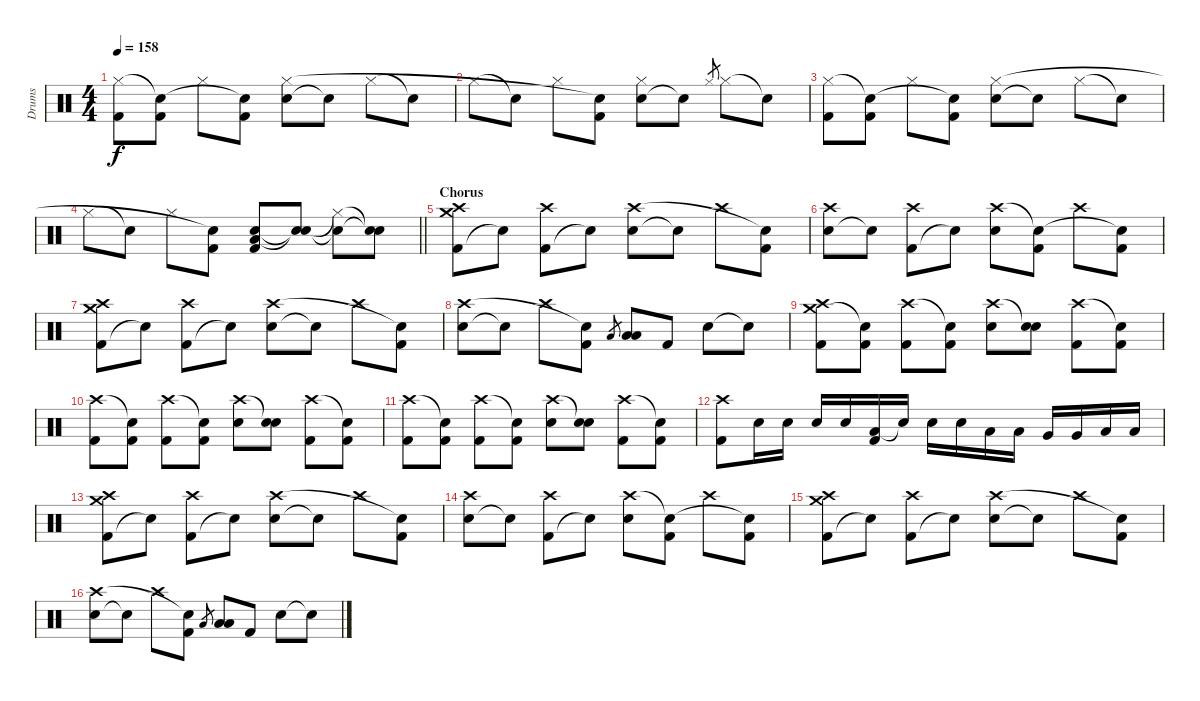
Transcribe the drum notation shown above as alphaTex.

\track ("Drums" "Drums") {instrument percussion}
\staff {score}
\articulation defaults
\ts (4 4)
\tempo 158
\clef neutral
\ks c
("Kick (hit) 2" "Hi-Hat (closed)").8{dy f} ("Kick (hit) 2" "Snare (hit)"{t}).8 "Hi-Hat (closed)".8 ("Kick (hit) 2" "Snare (hit)"{t}).8 ("Electric Snare (hit)" "Hi-Hat (closed)").8 "Snare (hit)"{t}.8 "Hi-Hat (closed)".8 "Snare (hit)"{t}.8 |
"Hi-Hat (closed)".8 "Snare (hit)"{t}.8 "Hi-Hat (closed)".8 ("Kick (hit) 2" "Snare (hit)"{t}).8 ("Electric Snare (hit)" "Hi-Hat (closed)").8 "Snare (hit)"{t}.8 "Hi-Hat (closed)".8{gr} "Hi-Hat (closed)".8 "Snare (hit)"{t}.8 |
("Kick (hit) 2" "Hi-Hat (closed)").8 ("Kick (hit) 2" "Snare (hit)"{t}).8 "Hi-Hat (closed)".8 ("Kick (hit) 2" "Snare (hit)"{t}).8 ("Electric Snare (hit)" "Hi-Hat (closed)").8 "Snare (hit)"{t}.8 "Hi-Hat (closed)".8 "Snare (hit)"{t}.8 |
\barLineRight lightlight "Hi-Hat (closed)".8 "Snare (hit)"{t}.8 "Hi-Hat (closed)".8
("Kick (hit) 2" "Snare (hit)"{t}).8 ("Electric Snare (hit)" "Low Floor Tom (hit)" "Kick (hit) 2").8 ("Snare (hit)"{t} "Snare (hit)"{t}).8 ("Snare (hit)"{t} "Hi-Hat (closed)"{t}).8 ("Snare (hit)"{t} "Snare (hit)"{t}).8 |
\section ("" "Chorus")
("Kick (hit) 2" "Crash medium (hit)" "Crash high (hit)").8 "Snare (hit)"{t}.8 ("Kick (hit) 2" "Crash high (hit)").8 "Snare (hit)"{t}.8 ("Electric Snare (hit)" "Crash high (hit)").8 "Snare (hit)"{t}.8 "Crash high (hit)".8 ("Kick (hit) 2" "Snare (hit)"{t}).8 |
("Electric Snare (hit)" "Crash high (hit)").8 "Snare (hit)"{t}.8 ("Kick (hit) 2" "Crash high (hit)").8 "Snare (hit)"{t}.8 ("Electric Snare (hit)" "Crash high (hit)").8 ("Kick (hit) 2" "Snare (hit)"{t}).8 "Crash high (hit)".8 ("Kick (hit) 2" "Snare (hit)"{t}).8 |
("Kick (hit) 2" "Crash medium (hit)" "Crash high (hit)").8 "Snare (hit)"{t}.8 ("Kick (hit) 2" "Crash high (hit)").8 "Snare (hit)"{t}.8 ("Electric Snare (hit)" "Crash high (hit)").8 "Snare (hit)"{t}.8 "Crash high (hit)".8 ("Kick (hit) 2" "Snare (hit)"{t}).8 |
("Electric Snare (hit)" "Crash high (hit)").8 "Snare (hit)"{t}.8 "Crash high (hit)".8 ("Kick (hit) 2" "Snare (hit)"{t}).8 "Low Tom (hit)".8{gr} ("Low Tom (hit)" "Low Floor Tom (hit)").8 "Kick (hit) 2".8 "Electric Snare (hit)".8 "Snare (hit)"{t}.8 |
("Kick (hit) 2" "Crash medium (hit)" "Crash high (hit)").8 ("Kick (hit) 2" "Snare (hit)"{t}).8 ("Kick (hit) 2" "Crash high (hit)").8 ("Kick (hit) 2" "Snare (hit)"{t}).8 ("Electric Snare (hit)" "Crash high (hit)").8 ("Electric Snare (hit)" "Snare (hit)"{t}).8 ("Kick (hit) 2" "Crash high (hit)").8 ("Kick (hit) 2" "Snare (hit)"{t}).8 |
("Kick (hit) 2" "Crash high (hit)").8 ("Kick (hit) 2" "Snare (hit)"{t}).8 ("Kick (hit) 2" "Crash high (hit)").8 ("Kick (hit) 2" "Snare (hit)"{t}).8 ("Electric Snare (hit)" "Crash high (hit)").8 ("Electric Snare (hit)" "Snare (hit)"{t}).8 ("Kick (hit) 2" "Crash high (hit)").8 ("Kick (hit) 2" "Snare (hit)"{t}).8 |
("Kick (hit) 2" "Crash high (hit)").8 ("Kick (hit) 2" "Snare (hit)"{t}).8 ("Kick (hit) 2" "Crash high (hit)").8 ("Kick (hit) 2" "Snare (hit)"{t}).8 ("Electric Snare (hit)" "Crash high (hit)").8 ("Electric Snare (hit)" "Snare (hit)"{t}).8 ("Kick (hit) 2" "Crash high (hit)").8 ("Kick (hit) 2" "Snare (hit)"{t}).8 |
("Kick (hit) 2" "Crash high (hit)").8 "Electric Snare (hit)".16 "Electric Snare (hit)".16 "Electric Snare (hit)".16 "Electric Snare (hit)".16 ("Low Tom (hit)" "Kick (hit) 2").16 "Snare (hit)"{t}.16 "Electric Snare (hit)".16 "Electric Snare (hit)".16 "Low Tom (hit)".16 "Low Tom (hit)".16 "Very Low Tom (hit)".16 "Very Low Tom (hit)".16 "Low Floor Tom (hit)".16 "Low Floor Tom (hit)".16 |
("Kick (hit) 2" "Crash medium (hit)" "Crash high (hit)").8 "Snare (hit)"{t}.8 ("Kick (hit) 2" "Crash high (hit)").8 "Snare (hit)"{t}.8 ("Electric Snare (hit)" "Crash high (hit)").8 "Snare (hit)"{t}.8 "Crash high (hit)".8 ("Kick (hit) 2" "Snare (hit)"{t}).8 |
("Electric Snare (hit)" "Crash high (hit)").8 "Snare (hit)"{t}.8 ("Kick (hit) 2" "Crash high (hit)").8 "Snare (hit)"{t}.8 ("Electric Snare (hit)" "Crash high (hit)").8 ("Kick (hit) 2" "Snare (hit)"{t}).8 "Crash high (hit)".8 ("Kick (hit) 2" "Snare (hit)"{t}).8 |
("Kick (hit) 2" "Crash medium (hit)" "Crash high (hit)").8 "Snare (hit)"{t}.8 ("Kick (hit) 2" "Crash high (hit)").8 "Snare (hit)"{t}.8 ("Electric Snare (hit)" "Crash high (hit)").8 "Snare (hit)"{t}.8 "Crash high (hit)".8 ("Kick (hit) 2" "Snare (hit)"{t}).8 |
("Electric Snare (hit)" "Crash high (hit)").8 "Snare (hit)"{t}.8 "Crash high (hit)".8 ("Kick (hit) 2" "Snare (hit)"{t}).8 "Low Tom (hit)".8{gr} ("Low Tom (hit)" "Low Floor Tom (hit)").8 "Kick (hit) 2".8 "Electric Snare (hit)".8 "Snare (hit)"{t}.8
